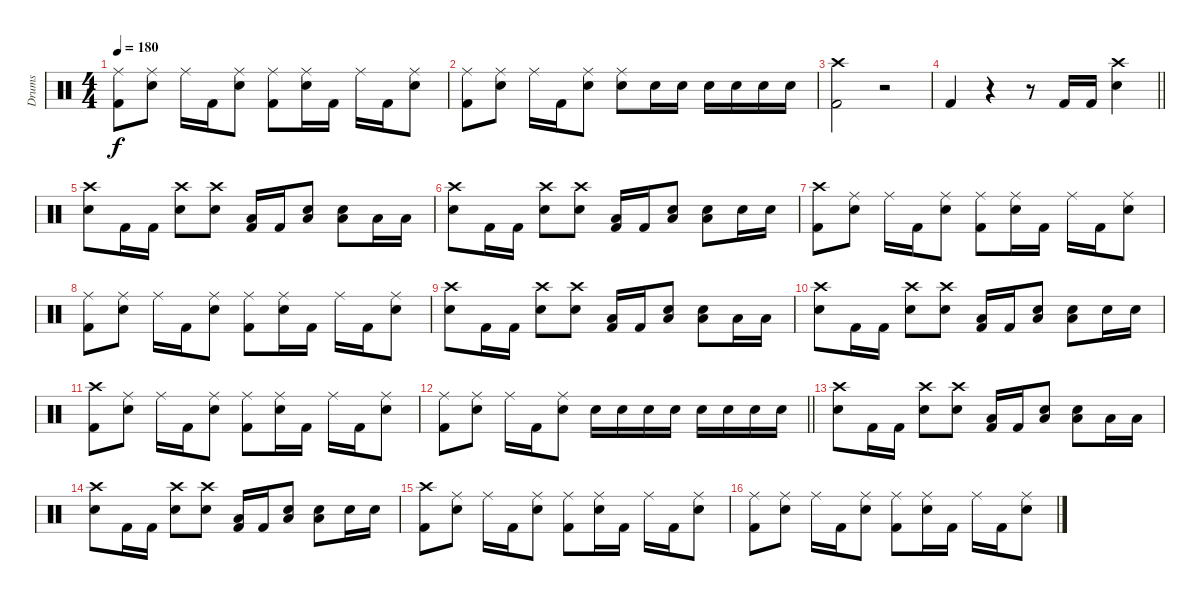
\track ("Drums" "Drums") {instrument percussion}
\staff {score}
\articulation defaults
\ts (4 4)
\tempo 180
\clef neutral
\ks c
("Ride (middle)" "Kick (hit) 2").8{dy f} ("Ride (middle)" "Snare (hit) 2").8 "Ride (middle)".16 "Kick (hit) 2".16 ("Ride (middle)" "Snare (hit) 2").8 ("Ride (middle)" "Kick (hit) 2").8 ("Ride (middle)" "Snare (hit) 2").16 "Kick (hit) 2".16 "Ride (middle)".16 "Kick (hit) 2".16 ("Ride (middle)" "Snare (hit) 2").8 |
("Ride (middle)" "Kick (hit) 2").8 ("Ride (middle)" "Snare (hit) 2").8 "Ride (middle)".16 "Kick (hit) 2".16 ("Ride (middle)" "Snare (hit) 2").8 ("Ride (middle)" "Snare (hit) 2").8 "Snare (hit) 2".16 "Snare (hit) 2".16 "Snare (hit) 2".16 "Snare (hit) 2".16 "Snare (hit) 2".16 "Snare (hit) 2".16 |
("Crash high (hit)" "Kick (hit) 2").2 r.2 |
\barLineRight lightlight "Kick (hit) 2".4
r.4 r.8 "Kick (hit) 2".16 "Kick (hit) 2".16 ("Crash high (hit)" "Snare (hit) 2").4 |
("Crash high (hit)" "Snare (hit) 2").8 "Kick (hit) 2".16 "Kick (hit) 2".16 ("Crash high (hit)" "Snare (hit) 2").8 ("Crash high (hit)" "Snare (hit) 2").8 ("Low Tom (hit)" "Kick (hit) 2").16 "Kick (hit) 2".16 ("Snare (hit) 2" "Low Floor Tom (hit)").8 ("Snare (hit) 2" "Low Floor Tom (hit)").8 "Low Floor Tom (hit)".16 "Low Floor Tom (hit)".16 |
("Crash high (hit)" "Snare (hit) 2").8 "Kick (hit) 2".16 "Kick (hit) 2".16 ("Crash high (hit)" "Snare (hit) 2").8 ("Crash high (hit)" "Snare (hit) 2").8 ("Low Tom (hit)" "Kick (hit) 2").16 "Kick (hit) 2".16 ("Snare (hit) 2" "Low Floor Tom (hit)").8 ("Snare (hit) 2" "Low Floor Tom (hit)").8 "Snare (hit) 2".16 "Snare (hit) 2".16 |
("Crash high (hit)" "Kick (hit) 2").8 ("Ride (middle)" "Snare (hit) 2").8 "Ride (middle)".16 "Kick (hit) 2".16 ("Ride (middle)" "Snare (hit) 2").8 ("Ride (middle)" "Kick (hit) 2").8 ("Ride (middle)" "Snare (hit) 2").16 "Kick (hit) 2".16 "Ride (middle)".16 "Kick (hit) 2".16 ("Ride (middle)" "Snare (hit) 2").8 |
("Ride (middle)" "Kick (hit) 2").8 ("Ride (middle)" "Snare (hit) 2").8 "Ride (middle)".16 "Kick (hit) 2".16 ("Ride (middle)" "Snare (hit) 2").8 ("Ride (middle)" "Kick (hit) 2").8 ("Ride (middle)" "Snare (hit) 2").16 "Kick (hit) 2".16 "Ride (middle)".16 "Kick (hit) 2".16 ("Ride (middle)" "Snare (hit) 2").8 |
("Crash high (hit)" "Snare (hit) 2").8 "Kick (hit) 2".16 "Kick (hit) 2".16 ("Crash high (hit)" "Snare (hit) 2").8 ("Crash high (hit)" "Snare (hit) 2").8 ("Low Tom (hit)" "Kick (hit) 2").16 "Kick (hit) 2".16 ("Snare (hit) 2" "Low Floor Tom (hit)").8 ("Snare (hit) 2" "Low Floor Tom (hit)").8 "Low Floor Tom (hit)".16 "Low Floor Tom (hit)".16 |
("Crash high (hit)" "Snare (hit) 2").8 "Kick (hit) 2".16 "Kick (hit) 2".16 ("Crash high (hit)" "Snare (hit) 2").8 ("Crash high (hit)" "Snare (hit) 2").8 ("Low Tom (hit)" "Kick (hit) 2").16 "Kick (hit) 2".16 ("Snare (hit) 2" "Low Floor Tom (hit)").8 ("Snare (hit) 2" "Low Floor Tom (hit)").8 "Snare (hit) 2".16 "Snare (hit) 2".16 |
("Crash high (hit)" "Kick (hit) 2").8 ("Ride (middle)" "Snare (hit) 2").8 "Ride (middle)".16 "Kick (hit) 2".16 ("Ride (middle)" "Snare (hit) 2").8 ("Ride (middle)" "Kick (hit) 2").8 ("Ride (middle)" "Snare (hit) 2").16 "Kick (hit) 2".16 "Ride (middle)".16 "Kick (hit) 2".16 ("Ride (middle)" "Snare (hit) 2").8 |
\barLineRight lightlight
("Ride (middle)" "Kick (hit) 2").8 ("Ride (middle)" "Snare (hit) 2").8 "Ride (middle)".16 "Kick (hit) 2".16 ("Ride (middle)" "Snare (hit) 2").8 "Snare (hit) 2".16 "Snare (hit) 2".16 "Snare (hit) 2".16 "Snare (hit) 2".16 "Snare (hit) 2".16 "Snare (hit) 2".16 "Snare (hit) 2".16 "Snare (hit) 2".16 |
("Crash high (hit)" "Snare (hit) 2").8 "Kick (hit) 2".16 "Kick (hit) 2".16 ("Crash high (hit)" "Snare (hit) 2").8 ("Crash high (hit)" "Snare (hit) 2").8 ("Low Tom (hit)" "Kick (hit) 2").16 "Kick (hit) 2".16 ("Snare (hit) 2" "Low Floor Tom (hit)").8 ("Snare (hit) 2" "Low Floor Tom (hit)").8 "Low Floor Tom (hit)".16 "Low Floor Tom (hit)".16 |
("Crash high (hit)" "Snare (hit) 2").8 "Kick (hit) 2".16 "Kick (hit) 2".16 ("Crash high (hit)" "Snare (hit) 2").8 ("Crash high (hit)" "Snare (hit) 2").8 ("Low Tom (hit)" "Kick (hit) 2").16 "Kick (hit) 2".16 ("Snare (hit) 2" "Low Floor Tom (hit)").8 ("Snare (hit) 2" "Low Floor Tom (hit)").8 "Snare (hit) 2".16 "Snare (hit) 2".16 |
("Crash high (hit)" "Kick (hit) 2").8 ("Ride (middle)" "Snare (hit) 2").8 "Ride (middle)".16 "Kick (hit) 2".16 ("Ride (middle)" "Snare (hit) 2").8 ("Ride (middle)" "Kick (hit) 2").8 ("Ride (middle)" "Snare (hit) 2").16 "Kick (hit) 2".16 "Ride (middle)".16 "Kick (hit) 2".16 ("Ride (middle)" "Snare (hit) 2").8 |
("Ride (middle)" "Kick (hit) 2").8 ("Ride (middle)" "Snare (hit) 2").8 "Ride (middle)".16 "Kick (hit) 2".16 ("Ride (middle)" "Snare (hit) 2").8 ("Ride (middle)" "Kick (hit) 2").8 ("Ride (middle)" "Snare (hit) 2").16 "Kick (hit) 2".16 "Ride (middle)".16 "Kick (hit) 2".16 ("Ride (middle)" "Snare (hit) 2").8
